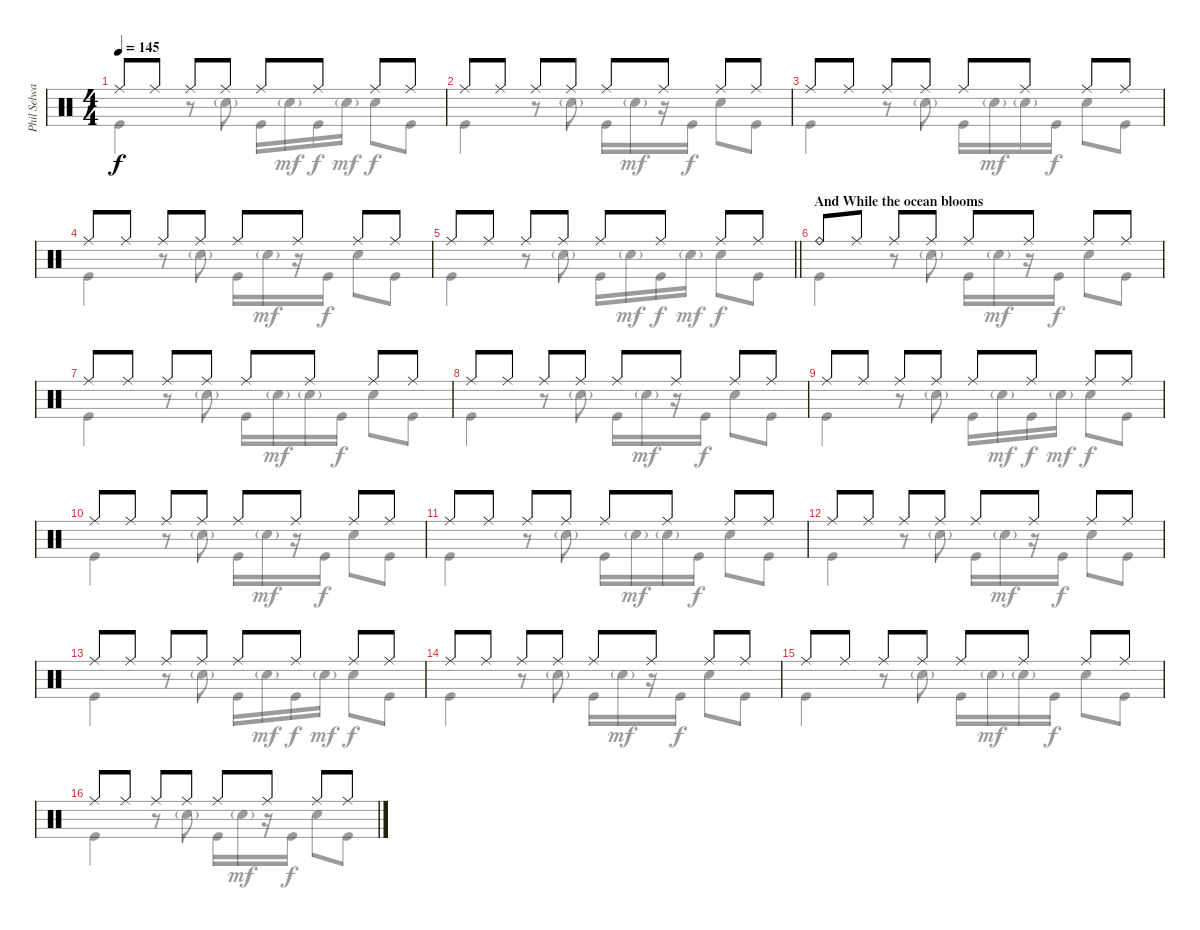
\track ("Phil Selway" "Phil Selwa") {instrument percussion}
\staff {score}
\articulation defaults
\voice
\ts (4 4)
\tempo 145
\clef neutral
\ks c "Ride (middle)".8{dy f} "Ride (middle)".8 "Ride (middle)".8 "Ride (middle)".8 "Ride (middle)".8 "Ride (middle)".8 "Ride (middle)".8 "Ride (middle)".8
|
"Ride (middle)".8 "Ride (middle)".8 "Ride (middle)".8 "Ride (middle)".8 "Ride (middle)".8 "Ride (middle)".8 "Ride (middle)".8 "Ride (middle)".8 |
"Ride (middle)".8 "Ride (middle)".8 "Ride (middle)".8 "Ride (middle)".8 "Ride (middle)".8 "Ride (middle)".8 "Ride (middle)".8 "Ride (middle)".8 |
"Ride (middle)".8 "Ride (middle)".8 "Ride (middle)".8 "Ride (middle)".8 "Ride (middle)".8 "Ride (middle)".8 "Ride (middle)".8 "Ride (middle)".8 |
\barLineRight lightlight "Ride (middle)".8 "Ride (middle)".8 "Ride (middle)".8 "Ride (middle)".8 "Ride (middle)".8 "Ride (middle)".8 "Ride (middle)".8 "Ride (middle)".8
|
\section ("" "And While the ocean blooms")
"Ride (bell)".8 "Ride (middle)".8 "Ride (middle)".8 "Ride (middle)".8 "Ride (middle)".8 "Ride (middle)".8 "Ride (middle)".8 "Ride (middle)".8 |
"Ride (middle)".8 "Ride (middle)".8 "Ride (middle)".8 "Ride (middle)".8 "Ride (middle)".8 "Ride (middle)".8 "Ride (middle)".8 "Ride (middle)".8 |
"Ride (middle)".8 "Ride (middle)".8 "Ride (middle)".8 "Ride (middle)".8 "Ride (middle)".8 "Ride (middle)".8 "Ride (middle)".8 "Ride (middle)".8 |
"Ride (middle)".8 "Ride (middle)".8 "Ride (middle)".8 "Ride (middle)".8 "Ride (middle)".8 "Ride (middle)".8 "Ride (middle)".8 "Ride (middle)".8 |
"Ride (middle)".8 "Ride (middle)".8 "Ride (middle)".8 "Ride (middle)".8 "Ride (middle)".8 "Ride (middle)".8 "Ride (middle)".8 "Ride (middle)".8 |
"Ride (middle)".8 "Ride (middle)".8 "Ride (middle)".8 "Ride (middle)".8 "Ride (middle)".8 "Ride (middle)".8 "Ride (middle)".8 "Ride (middle)".8 |
"Ride (middle)".8 "Ride (middle)".8 "Ride (middle)".8 "Ride (middle)".8 "Ride (middle)".8 "Ride (middle)".8 "Ride (middle)".8 "Ride (middle)".8 |
"Ride (middle)".8 "Ride (middle)".8 "Ride (middle)".8 "Ride (middle)".8 "Ride (middle)".8 "Ride (middle)".8 "Ride (middle)".8 "Ride (middle)".8 |
"Ride (middle)".8 "Ride (middle)".8 "Ride (middle)".8 "Ride (middle)".8 "Ride (middle)".8 "Ride (middle)".8 "Ride (middle)".8 "Ride (middle)".8 |
"Ride (middle)".8 "Ride (middle)".8 "Ride (middle)".8 "Ride (middle)".8 "Ride (middle)".8 "Ride (middle)".8 "Ride (middle)".8 "Ride (middle)".8 |
"Ride (middle)".8 "Ride (middle)".8 "Ride (middle)".8 "Ride (middle)".8 "Ride (middle)".8 "Ride (middle)".8 "Ride (middle)".8 "Ride (middle)".8
\voice
\clef neutral
\ottava regular
\simile none
\ks c "Kick (hit)".4{dy f}
r.8 "Snare (hit) 2"{g}.8 "Kick (hit)".16 "Snare (hit) 2"{g}.16{dy mf} "Kick (hit)".16{dy f} "Snare (hit) 2"{g}.16{dy mf} "Snare (hit) 2".8{dy f} "Kick (hit)".8 |
"Kick (hit)".4 r.8 "Snare (hit) 2"{g}.8 "Kick (hit)".16 "Snare (hit) 2"{g}.16{dy mf} r.16 "Kick (hit)".16{dy f} "Snare (hit) 2".8 "Kick (hit)".8 |
"Kick (hit)".4 r.8 "Snare (hit) 2"{g}.8 "Kick (hit)".16 "Snare (hit) 2"{g}.16{dy mf} "Snare (hit) 2"{g}.16 "Kick (hit)".16{dy f} "Snare (hit) 2".8 "Kick (hit)".8 |
"Kick (hit)".4 r.8 "Snare (hit) 2"{g}.8 "Kick (hit)".16 "Snare (hit) 2"{g}.16{dy mf} r.16 "Kick (hit)".16{dy f} "Snare (hit) 2".8 "Kick (hit)".8 |
\barLineRight lightlight "Kick (hit)".4
r.8 "Snare (hit) 2"{g}.8 "Kick (hit)".16 "Snare (hit) 2"{g}.16{dy mf} "Kick (hit)".16{dy f} "Snare (hit) 2"{g}.16{dy mf} "Snare (hit) 2".8{dy f} "Kick (hit)".8 |
"Kick (hit)".4 r.8 "Snare (hit) 2"{g}.8 "Kick (hit)".16 "Snare (hit) 2"{g}.16{dy mf} r.16 "Kick (hit)".16{dy f} "Snare (hit) 2".8 "Kick (hit)".8 |
"Kick (hit)".4 r.8 "Snare (hit) 2"{g}.8 "Kick (hit)".16 "Snare (hit) 2"{g}.16{dy mf} "Snare (hit) 2"{g}.16 "Kick (hit)".16{dy f} "Snare (hit) 2".8 "Kick (hit)".8 |
"Kick (hit)".4 r.8 "Snare (hit) 2"{g}.8 "Kick (hit)".16 "Snare (hit) 2"{g}.16{dy mf} r.16 "Kick (hit)".16{dy f} "Snare (hit) 2".8 "Kick (hit)".8 |
"Kick (hit)".4 r.8 "Snare (hit) 2"{g}.8 "Kick (hit)".16 "Snare (hit) 2"{g}.16{dy mf} "Kick (hit)".16{dy f} "Snare (hit) 2"{g}.16{dy mf} "Snare (hit) 2".8{dy f} "Kick (hit)".8 |
"Kick (hit)".4 r.8 "Snare (hit) 2"{g}.8 "Kick (hit)".16 "Snare (hit) 2"{g}.16{dy mf} r.16 "Kick (hit)".16{dy f} "Snare (hit) 2".8 "Kick (hit)".8 |
"Kick (hit)".4 r.8 "Snare (hit) 2"{g}.8 "Kick (hit)".16 "Snare (hit) 2"{g}.16{dy mf} "Snare (hit) 2"{g}.16 "Kick (hit)".16{dy f} "Snare (hit) 2".8 "Kick (hit)".8 |
"Kick (hit)".4 r.8 "Snare (hit) 2"{g}.8 "Kick (hit)".16 "Snare (hit) 2"{g}.16{dy mf} r.16 "Kick (hit)".16{dy f} "Snare (hit) 2".8 "Kick (hit)".8 |
"Kick (hit)".4 r.8 "Snare (hit) 2"{g}.8 "Kick (hit)".16 "Snare (hit) 2"{g}.16{dy mf} "Kick (hit)".16{dy f} "Snare (hit) 2"{g}.16{dy mf} "Snare (hit) 2".8{dy f} "Kick (hit)".8 |
"Kick (hit)".4 r.8 "Snare (hit) 2"{g}.8 "Kick (hit)".16 "Snare (hit) 2"{g}.16{dy mf} r.16 "Kick (hit)".16{dy f} "Snare (hit) 2".8 "Kick (hit)".8 |
"Kick (hit)".4 r.8 "Snare (hit) 2"{g}.8 "Kick (hit)".16 "Snare (hit) 2"{g}.16{dy mf} "Snare (hit) 2"{g}.16 "Kick (hit)".16{dy f} "Snare (hit) 2".8 "Kick (hit)".8 |
"Kick (hit)".4 r.8 "Snare (hit) 2"{g}.8 "Kick (hit)".16 "Snare (hit) 2"{g}.16{dy mf} r.16 "Kick (hit)".16{dy f} "Snare (hit) 2".8 "Kick (hit)".8
